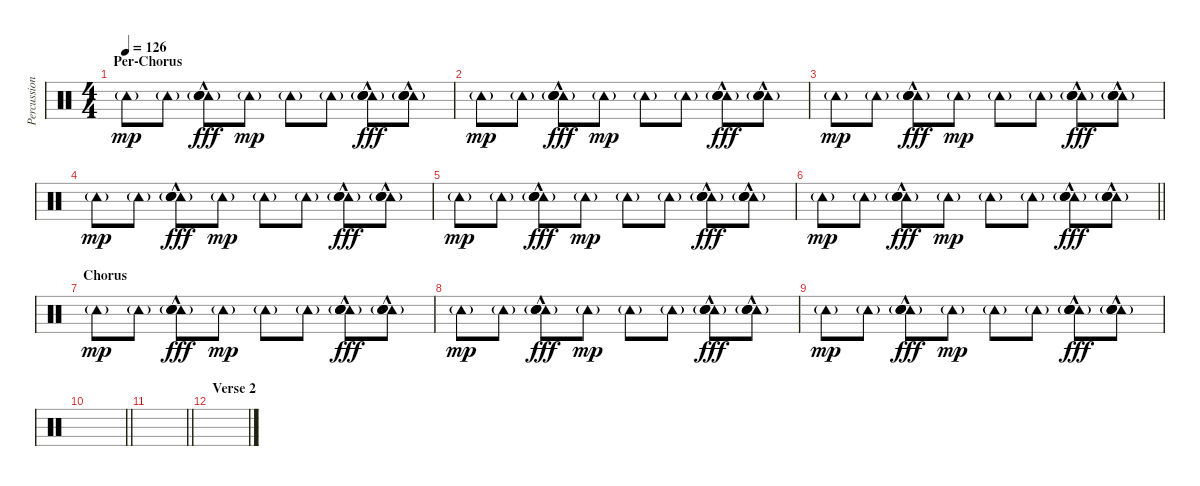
\track ("Percussion" "Percussion") {instrument percussion}
\staff {score}
\articulation defaults
\ts (4 4)
\section ("" "Per-Chorus")
\tempo 126
\clef neutral
\ks c "Tambourine (hit)"{g}.8{dy mp} "Tambourine (hit)"{g}.8
("Tambourine (hit)"{g} "Hand Clap (hit)"{hac} "Hand Clap (hit)"{hac} "Hand Clap (hit)"{hac}).8{dy fff} "Tambourine (hit)"{g}.8{dy mp} "Tambourine (hit)"{g}.8 "Tambourine (hit)"{g}.8 ("Tambourine (hit)"{g} "Hand Clap (hit)"{hac} "Hand Clap (hit)"{hac} "Hand Clap (hit)"{hac}).8{dy fff} ("Tambourine (hit)"{g} "Hand Clap (hit)"{hac} "Hand Clap (hit)"{hac} "Hand Clap (hit)"{hac}).8 |
"Tambourine (hit)"{g}.8{dy mp} "Tambourine (hit)"{g}.8 ("Tambourine (hit)"{g} "Hand Clap (hit)"{hac} "Hand Clap (hit)"{hac} "Hand Clap (hit)"{hac}).8{dy fff} "Tambourine (hit)"{g}.8{dy mp} "Tambourine (hit)"{g}.8 "Tambourine (hit)"{g}.8 ("Tambourine (hit)"{g} "Hand Clap (hit)"{hac} "Hand Clap (hit)"{hac} "Hand Clap (hit)"{hac}).8{dy fff} ("Tambourine (hit)"{g} "Hand Clap (hit)"{hac} "Hand Clap (hit)"{hac} "Hand Clap (hit)"{hac}).8 |
"Tambourine (hit)"{g}.8{dy mp} "Tambourine (hit)"{g}.8 ("Tambourine (hit)"{g} "Hand Clap (hit)"{hac} "Hand Clap (hit)"{hac} "Hand Clap (hit)"{hac}).8{dy fff} "Tambourine (hit)"{g}.8{dy mp} "Tambourine (hit)"{g}.8 "Tambourine (hit)"{g}.8 ("Tambourine (hit)"{g} "Hand Clap (hit)"{hac} "Hand Clap (hit)"{hac} "Hand Clap (hit)"{hac}).8{dy fff} ("Tambourine (hit)"{g} "Hand Clap (hit)"{hac} "Hand Clap (hit)"{hac} "Hand Clap (hit)"{hac}).8 |
"Tambourine (hit)"{g}.8{dy mp} "Tambourine (hit)"{g}.8 ("Tambourine (hit)"{g} "Hand Clap (hit)"{hac} "Hand Clap (hit)"{hac} "Hand Clap (hit)"{hac}).8{dy fff} "Tambourine (hit)"{g}.8{dy mp} "Tambourine (hit)"{g}.8 "Tambourine (hit)"{g}.8 ("Tambourine (hit)"{g} "Hand Clap (hit)"{hac} "Hand Clap (hit)"{hac} "Hand Clap (hit)"{hac}).8{dy fff} ("Tambourine (hit)"{g} "Hand Clap (hit)"{hac} "Hand Clap (hit)"{hac} "Hand Clap (hit)"{hac}).8 |
"Tambourine (hit)"{g}.8{dy mp} "Tambourine (hit)"{g}.8 ("Tambourine (hit)"{g} "Hand Clap (hit)"{hac} "Hand Clap (hit)"{hac} "Hand Clap (hit)"{hac}).8{dy fff} "Tambourine (hit)"{g}.8{dy mp} "Tambourine (hit)"{g}.8 "Tambourine (hit)"{g}.8 ("Tambourine (hit)"{g} "Hand Clap (hit)"{hac} "Hand Clap (hit)"{hac} "Hand Clap (hit)"{hac}).8{dy fff} ("Tambourine (hit)"{g} "Hand Clap (hit)"{hac} "Hand Clap (hit)"{hac} "Hand Clap (hit)"{hac}).8 |
\barLineRight lightlight "Tambourine (hit)"{g}.8{dy mp} "Tambourine (hit)"{g}.8
("Tambourine (hit)"{g} "Hand Clap (hit)"{hac} "Hand Clap (hit)"{hac} "Hand Clap (hit)"{hac}).8{dy fff} "Tambourine (hit)"{g}.8{dy mp} "Tambourine (hit)"{g}.8 "Tambourine (hit)"{g}.8 ("Tambourine (hit)"{g} "Hand Clap (hit)"{hac} "Hand Clap (hit)"{hac} "Hand Clap (hit)"{hac}).8{dy fff} ("Tambourine (hit)"{g} "Hand Clap (hit)"{hac} "Hand Clap (hit)"{hac} "Hand Clap (hit)"{hac}).8 |
\section ("" "Chorus")
"Tambourine (hit)"{g}.8{dy mp} "Tambourine (hit)"{g}.8 ("Tambourine (hit)"{g} "Hand Clap (hit)"{hac} "Hand Clap (hit)"{hac} "Hand Clap (hit)"{hac}).8{dy fff} "Tambourine (hit)"{g}.8{dy mp} "Tambourine (hit)"{g}.8 "Tambourine (hit)"{g}.8 ("Tambourine (hit)"{g} "Hand Clap (hit)"{hac} "Hand Clap (hit)"{hac} "Hand Clap (hit)"{hac}).8{dy fff} ("Tambourine (hit)"{g} "Hand Clap (hit)"{hac} "Hand Clap (hit)"{hac} "Hand Clap (hit)"{hac}).8 |
"Tambourine (hit)"{g}.8{dy mp} "Tambourine (hit)"{g}.8 ("Tambourine (hit)"{g} "Hand Clap (hit)"{hac} "Hand Clap (hit)"{hac} "Hand Clap (hit)"{hac}).8{dy fff} "Tambourine (hit)"{g}.8{dy mp} "Tambourine (hit)"{g}.8 "Tambourine (hit)"{g}.8 ("Tambourine (hit)"{g} "Hand Clap (hit)"{hac} "Hand Clap (hit)"{hac} "Hand Clap (hit)"{hac}).8{dy fff} ("Tambourine (hit)"{g} "Hand Clap (hit)"{hac} "Hand Clap (hit)"{hac} "Hand Clap (hit)"{hac}).8 |
"Tambourine (hit)"{g}.8{dy mp} "Tambourine (hit)"{g}.8 ("Tambourine (hit)"{g} "Hand Clap (hit)"{hac} "Hand Clap (hit)"{hac} "Hand Clap (hit)"{hac}).8{dy fff} "Tambourine (hit)"{g}.8{dy mp} "Tambourine (hit)"{g}.8 "Tambourine (hit)"{g}.8 ("Tambourine (hit)"{g} "Hand Clap (hit)"{hac} "Hand Clap (hit)"{hac} "Hand Clap (hit)"{hac}).8{dy fff} ("Tambourine (hit)"{g} "Hand Clap (hit)"{hac} "Hand Clap (hit)"{hac} "Hand Clap (hit)"{hac}).8 |
\barLineRight lightlight
|
\barLineRight lightlight
|
\section ("" "Verse 2")
